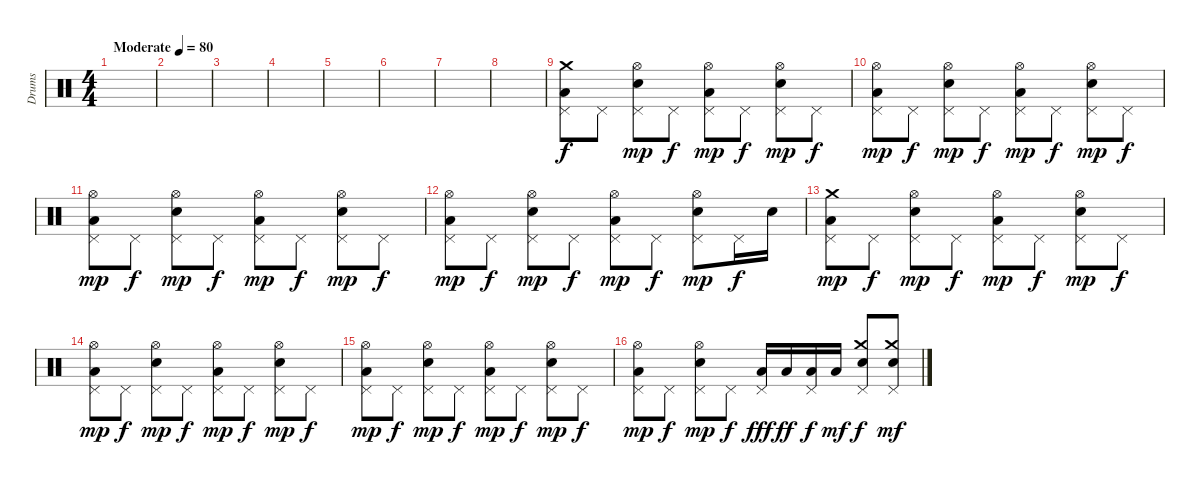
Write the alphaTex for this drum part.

\track ("Drums" "Drums") {instrument percussion}
\staff {score}
\articulation defaults
\ts (4 4)
\tempo (80 "Moderate")
\clef neutral
\ks c
|
|
|
|
|
|
|
|
("Low Floor Tom (hit)" "Pedal Hi-Hat (hit)" "Crash medium (hit)").8 "Pedal Hi-Hat (hit)".8{dy f} ("Electric Snare (hit)" "Pedal Hi-Hat (hit)" "Hi-Hat (open)").8{dy mp} "Pedal Hi-Hat (hit)".8{dy f} ("Low Floor Tom (hit)" "Pedal Hi-Hat (hit)" "Hi-Hat (open)").8{dy mp} "Pedal Hi-Hat (hit)".8{dy f} ("Electric Snare (hit)" "Pedal Hi-Hat (hit)" "Hi-Hat (open)").8{dy mp} "Pedal Hi-Hat (hit)".8{dy f} |
("Low Floor Tom (hit)" "Pedal Hi-Hat (hit)" "Hi-Hat (open)").8{dy mp} "Pedal Hi-Hat (hit)".8{dy f} ("Electric Snare (hit)" "Pedal Hi-Hat (hit)" "Hi-Hat (open)").8{dy mp} "Pedal Hi-Hat (hit)".8{dy f} ("Low Floor Tom (hit)" "Pedal Hi-Hat (hit)" "Hi-Hat (open)").8{dy mp} "Pedal Hi-Hat (hit)".8{dy f} ("Electric Snare (hit)" "Pedal Hi-Hat (hit)" "Hi-Hat (open)").8{dy mp} "Pedal Hi-Hat (hit)".8{dy f} |
("Low Floor Tom (hit)" "Pedal Hi-Hat (hit)" "Hi-Hat (open)").8{dy mp} "Pedal Hi-Hat (hit)".8{dy f} ("Electric Snare (hit)" "Pedal Hi-Hat (hit)" "Hi-Hat (open)").8{dy mp} "Pedal Hi-Hat (hit)".8{dy f} ("Low Floor Tom (hit)" "Pedal Hi-Hat (hit)" "Hi-Hat (open)").8{dy mp} "Pedal Hi-Hat (hit)".8{dy f} ("Electric Snare (hit)" "Pedal Hi-Hat (hit)" "Hi-Hat (open)").8{dy mp} "Pedal Hi-Hat (hit)".8{dy f} |
("Low Floor Tom (hit)" "Pedal Hi-Hat (hit)" "Hi-Hat (open)").8{dy mp} "Pedal Hi-Hat (hit)".8{dy f} ("Electric Snare (hit)" "Pedal Hi-Hat (hit)" "Hi-Hat (open)").8{dy mp} "Pedal Hi-Hat (hit)".8{dy f} ("Low Floor Tom (hit)" "Pedal Hi-Hat (hit)" "Hi-Hat (open)").8{dy mp} "Pedal Hi-Hat (hit)".8{dy f} ("Electric Snare (hit)" "Pedal Hi-Hat (hit)" "Hi-Hat (open)").8{dy mp} "Pedal Hi-Hat (hit)".16{dy f} "Electric Snare (hit)".16 |
("Low Floor Tom (hit)" "Pedal Hi-Hat (hit)" "Crash medium (hit)").8{dy mp} "Pedal Hi-Hat (hit)".8{dy f} ("Electric Snare (hit)" "Pedal Hi-Hat (hit)" "Hi-Hat (open)").8{dy mp} "Pedal Hi-Hat (hit)".8{dy f} ("Low Floor Tom (hit)" "Pedal Hi-Hat (hit)" "Hi-Hat (open)").8{dy mp} "Pedal Hi-Hat (hit)".8{dy f} ("Electric Snare (hit)" "Pedal Hi-Hat (hit)" "Hi-Hat (open)").8{dy mp} "Pedal Hi-Hat (hit)".8{dy f} |
("Low Floor Tom (hit)" "Pedal Hi-Hat (hit)" "Hi-Hat (open)").8{dy mp} "Pedal Hi-Hat (hit)".8{dy f} ("Electric Snare (hit)" "Pedal Hi-Hat (hit)" "Hi-Hat (open)").8{dy mp} "Pedal Hi-Hat (hit)".8{dy f} ("Low Floor Tom (hit)" "Pedal Hi-Hat (hit)" "Hi-Hat (open)").8{dy mp} "Pedal Hi-Hat (hit)".8{dy f} ("Electric Snare (hit)" "Pedal Hi-Hat (hit)" "Hi-Hat (open)").8{dy mp} "Pedal Hi-Hat (hit)".8{dy f} |
("Low Floor Tom (hit)" "Pedal Hi-Hat (hit)" "Hi-Hat (open)").8{dy mp} "Pedal Hi-Hat (hit)".8{dy f} ("Electric Snare (hit)" "Pedal Hi-Hat (hit)" "Hi-Hat (open)").8{dy mp} "Pedal Hi-Hat (hit)".8{dy f} ("Low Floor Tom (hit)" "Pedal Hi-Hat (hit)" "Hi-Hat (open)").8{dy mp} "Pedal Hi-Hat (hit)".8{dy f} ("Electric Snare (hit)" "Pedal Hi-Hat (hit)" "Hi-Hat (open)").8{dy mp} "Pedal Hi-Hat (hit)".8{dy f} |
("Low Floor Tom (hit)" "Pedal Hi-Hat (hit)" "Hi-Hat (open)").8{dy mp} "Pedal Hi-Hat (hit)".8{dy f} ("Electric Snare (hit)" "Pedal Hi-Hat (hit)" "Hi-Hat (open)").8{dy mp} "Pedal Hi-Hat (hit)".8{dy f} ("Low Floor Tom (hit)" "Pedal Hi-Hat (hit)").16{dy fff} "Low Floor Tom (hit)".16{dy ff} ("Low Floor Tom (hit)" "Pedal Hi-Hat (hit)").16{dy f} "Low Floor Tom (hit)".16{dy mf} ("Electric Snare (hit)" "Pedal Hi-Hat (hit)" "Crash medium (hit)").8{dy f} ("Electric Snare (hit)" "Pedal Hi-Hat (hit)" "Crash medium (hit)").8{dy mf}
